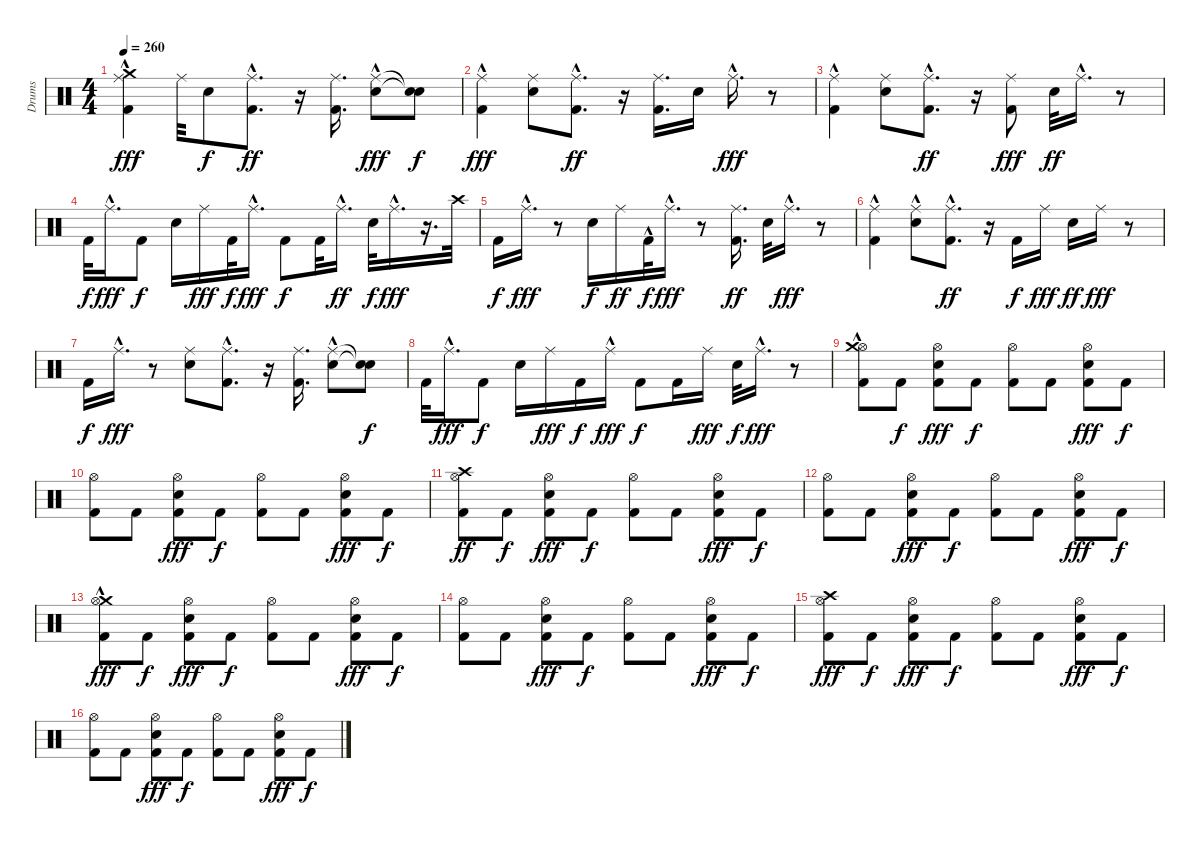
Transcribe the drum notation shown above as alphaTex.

\track ("Drums" "Drums") {instrument percussion}
\staff {score}
\articulation defaults
\ts (4 4)
\tempo 260
\clef neutral
\ks c
("Crash medium (hit)"{hac} "Kick (hit) 2" "Ride (middle)"{hac}).4{dy fff} "Ride (middle)".32 "Snare (hit) 2".8{dy f} ("Kick (hit) 2"{hac} "Ride (middle)"{hac}).8{d dy ff} r.16 ("Ride (middle)" "Kick (hit) 2").16{d} ("Snare (hit) 2" "Ride (middle)"{hac}).8{dy fff} ("Snare (hit)"{t} "Snare (hit)"{t}).8{dy f} |
("Kick (hit) 2" "Ride (middle)"{hac}).4{dy fff} ("Snare (hit) 2" "Ride (middle)").8 ("Kick (hit) 2"{hac} "Ride (middle)"{hac}).8{d dy ff} r.16 ("Ride (middle)" "Kick (hit) 2").16{d} "Snare (hit) 2".16 "Ride (middle)"{hac}.16{d dy fff} r.8 |
("Kick (hit) 2" "Ride (middle)"{hac}).4 ("Snare (hit) 2" "Ride (middle)").8 ("Kick (hit) 2"{hac} "Ride (middle)"{hac}).8{d dy ff} r.16 ("Kick (hit) 2" "Ride (middle)").8{dy fff} "Snare (hit) 2".32{dy ff} "Ride (middle)"{hac}.16{d} r.8 |
"Kick (hit) 2".32{dy f} "Ride (middle)"{hac}.16{d dy fff} "Kick (hit) 2".8{dy f} "Snare (hit) 2".16 "Ride (middle)".16{dy fff} "Kick (hit) 2".32{dy f} "Ride (middle)"{hac}.16{d dy fff} "Kick (hit) 2".8{dy f} "Kick (hit) 2".32 "Ride (middle)"{hac}.16{d dy ff} "Snare (hit) 2".32{dy f} "Ride (middle)"{hac}.16{d dy fff} r.16{d} "Crash high (hit)".32 |
"Kick (hit) 2".16{dy f} "Ride (middle)"{hac}.16{d dy fff} r.8 "Snare (hit) 2".16{dy f} "Ride (middle)".16{dy ff} "Kick (hit) 2"{hac}.32{dy f} "Ride (middle)"{hac}.16{d dy fff} r.8 ("Ride (middle)" "Kick (hit) 2").16{d dy ff} "Snare (hit) 2".32 "Ride (middle)"{hac}.16{d dy fff} r.8 |
("Kick (hit) 2" "Ride (middle)"{hac}).4 ("Snare (hit) 2" "Ride (middle)"{hac}).8 ("Kick (hit) 2"{hac} "Ride (middle)").8{d dy ff} r.16 "Kick (hit) 2".16{dy f} "Ride (middle)".16{dy fff} "Snare (hit) 2".16{dy ff} "Ride (middle)".16{dy fff} r.8 |
"Kick (hit) 2".16{dy f} "Ride (middle)"{hac}.16{d dy fff} r.8 ("Snare (hit) 2" "Ride (middle)").8 ("Kick (hit) 2"{hac} "Ride (middle)"{hac}).8{d} r.16 ("Ride (middle)" "Kick (hit) 2").16{d} ("Snare (hit) 2" "Ride (middle)"{hac}).8 ("Snare (hit)"{t} "Snare (hit)"{t}).8{dy f} |
"Kick (hit) 2".32 "Ride (middle)"{hac}.16{d dy fff} "Kick (hit) 2".8{dy f} "Snare (hit) 2".16 "Ride (middle)".16{dy fff} "Kick (hit) 2".16{dy f} "Ride (middle)"{hac}.16{dy fff} "Kick (hit) 2".8{dy f} "Kick (hit) 2".16 "Ride (middle)".16{dy fff} "Snare (hit) 2".32{dy f} "Ride (middle)"{hac}.16{d dy fff} r.8 |
("Hi-Hat (open)" "Kick (hit) 2" "Crash medium (hit)"{hac}).8 "Kick (hit) 2".8{dy f} ("Hi-Hat (open)" "Snare (hit) 2" "Kick (hit) 2").8{dy fff} "Kick (hit) 2".8{dy f} ("Hi-Hat (open)" "Kick (hit) 2").8 "Kick (hit) 2".8 ("Hi-Hat (open)" "Snare (hit) 2" "Kick (hit) 2").8{dy fff} "Kick (hit) 2".8{dy f} |
("Hi-Hat (open)" "Kick (hit) 2").8 "Kick (hit) 2".8 ("Hi-Hat (open)" "Snare (hit) 2" "Kick (hit) 2").8{dy fff} "Kick (hit) 2".8{dy f} ("Hi-Hat (open)" "Kick (hit) 2").8 "Kick (hit) 2".8 ("Hi-Hat (open)" "Snare (hit) 2" "Kick (hit) 2").8{dy fff} "Kick (hit) 2".8{dy f} |
("Hi-Hat (open)" "Kick (hit) 2" "Crash high (hit)").8{dy ff} "Kick (hit) 2".8{dy f} ("Hi-Hat (open)" "Snare (hit) 2" "Kick (hit) 2").8{dy fff} "Kick (hit) 2".8{dy f} ("Hi-Hat (open)" "Kick (hit) 2").8 "Kick (hit) 2".8 ("Hi-Hat (open)" "Snare (hit) 2" "Kick (hit) 2").8{dy fff} "Kick (hit) 2".8{dy f} |
("Hi-Hat (open)" "Kick (hit) 2").8 "Kick (hit) 2".8 ("Hi-Hat (open)" "Snare (hit) 2" "Kick (hit) 2").8{dy fff} "Kick (hit) 2".8{dy f} ("Hi-Hat (open)" "Kick (hit) 2").8 "Kick (hit) 2".8 ("Hi-Hat (open)" "Snare (hit) 2" "Kick (hit) 2").8{dy fff} "Kick (hit) 2".8{dy f} |
("Crash medium (hit)"{hac} "Hi-Hat (open)" "Kick (hit) 2").8{dy fff} "Kick (hit) 2".8{dy f} ("Hi-Hat (open)" "Snare (hit) 2" "Kick (hit) 2").8{dy fff} "Kick (hit) 2".8{dy f} ("Hi-Hat (open)" "Kick (hit) 2").8 "Kick (hit) 2".8 ("Hi-Hat (open)" "Snare (hit) 2" "Kick (hit) 2").8{dy fff} "Kick (hit) 2".8{dy f} |
("Hi-Hat (open)" "Kick (hit) 2").8 "Kick (hit) 2".8 ("Hi-Hat (open)" "Snare (hit) 2" "Kick (hit) 2").8{dy fff} "Kick (hit) 2".8{dy f} ("Hi-Hat (open)" "Kick (hit) 2").8 "Kick (hit) 2".8 ("Hi-Hat (open)" "Snare (hit) 2" "Kick (hit) 2").8{dy fff} "Kick (hit) 2".8{dy f} |
("Crash high (hit)" "Hi-Hat (open)" "Kick (hit) 2").8{dy fff} "Kick (hit) 2".8{dy f} ("Hi-Hat (open)" "Snare (hit) 2" "Kick (hit) 2").8{dy fff} "Kick (hit) 2".8{dy f} ("Hi-Hat (open)" "Kick (hit) 2").8 "Kick (hit) 2".8 ("Hi-Hat (open)" "Snare (hit) 2" "Kick (hit) 2").8{dy fff} "Kick (hit) 2".8{dy f} |
("Hi-Hat (open)" "Kick (hit) 2").8 "Kick (hit) 2".8 ("Hi-Hat (open)" "Snare (hit) 2" "Kick (hit) 2").8{dy fff} "Kick (hit) 2".8{dy f} ("Hi-Hat (open)" "Kick (hit) 2").8 "Kick (hit) 2".8 ("Hi-Hat (open)" "Snare (hit) 2" "Kick (hit) 2").8{dy fff} "Kick (hit) 2".8{dy f}
